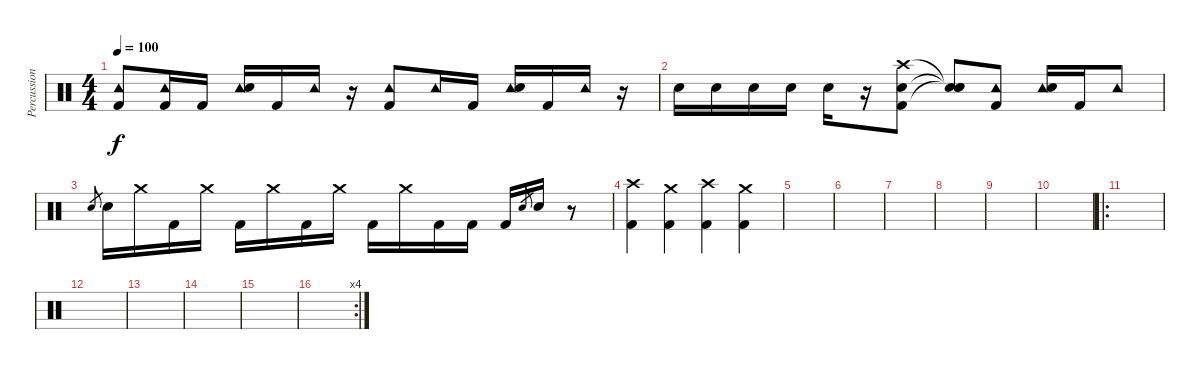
\track ("Percussion" "Percussion") {instrument percussion}
\staff {score}
\articulation defaults
\ts (4 4)
\tempo 100
\clef neutral
\ks c
("Tambourine (hit)" "Kick (hit) 2").8{dy f} ("Tambourine (hit)" "Kick (hit) 2").16 "Kick (hit) 2".16 ("Tambourine (hit)" "Snare (hit) 2").16 "Kick (hit) 2".16 "Tambourine (hit)".16 r.16 ("Tambourine (hit)" "Kick (hit) 2").8 "Tambourine (hit)".16 "Kick (hit) 2".16 ("Tambourine (hit)" "Snare (hit) 2").16 "Kick (hit) 2".16 "Tambourine (hit)".16 r.16 |
"Snare (hit) 2".16 "Snare (hit) 2".16 "Snare (hit) 2".16 "Snare (hit) 2".16 "Snare (hit) 2".16 r.16 ("Crash high (hit)" "Snare (hit) 2" "Kick (hit) 2").8 ("Snare (hit)"{t} "Snare (hit)"{t} "Snare (hit)"{t}).8 ("Tambourine (hit)" "Kick (hit) 2").8 ("Tambourine (hit)" "Snare (hit) 2").16 "Kick (hit) 2".16 "Tambourine (hit)".8 |
"Snare (hit) 2".8{gr} "Snare (hit) 2".16 "Crash medium (hit)".16 "Kick (hit) 2".16 "Crash medium (hit)".16 "Kick (hit) 2".16 "Crash medium (hit)".16 "Kick (hit) 2".16 "Crash medium (hit)".16 "Kick (hit) 2".16 "Crash medium (hit)".16 "Kick (hit) 2".16 "Kick (hit) 2".16 "Kick (hit) 2".16 "Snare (hit) 2".8{gr} "Snare (hit) 2".16 r.8 |
("Crash high (hit)" "Kick (hit) 2").4 ("Crash medium (hit)" "Kick (hit) 2").4 ("Crash high (hit)" "Kick (hit) 2").4 ("Crash medium (hit)" "Kick (hit) 2").4 |
|
|
|
|
|
|
\ro
|
|
|
|
|
\rc 4
